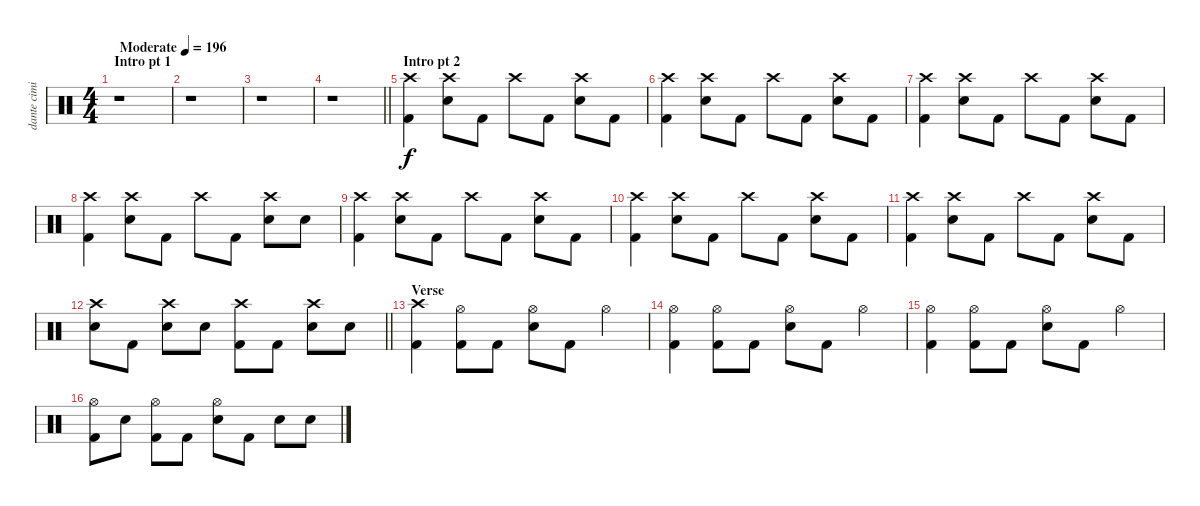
\track ("dante cimino" "dante cimi") {instrument percussion}
\staff {score}
\articulation defaults
\ts (4 4)
\section ("" "Intro pt 1")
\tempo (196 "Moderate")
\clef neutral
\ks c
r.1{dy f} |
r.1 |
r.1 |
\barLineRight lightlight
r.1 |
\section ("" "Intro pt 2")
("Crash high (hit)" "Kick (hit) 2").4 ("Crash high (hit)" "Electric Snare (hit)").8 "Kick (hit) 2".8 "Crash high (hit)".8 "Kick (hit) 2".8 ("Crash high (hit)" "Electric Snare (hit)").8 "Kick (hit) 2".8 |
("Crash high (hit)" "Kick (hit) 2").4 ("Crash high (hit)" "Electric Snare (hit)").8 "Kick (hit) 2".8 "Crash high (hit)".8 "Kick (hit) 2".8 ("Crash high (hit)" "Electric Snare (hit)").8 "Kick (hit) 2".8 |
("Crash high (hit)" "Kick (hit) 2").4 ("Crash high (hit)" "Electric Snare (hit)").8 "Kick (hit) 2".8 "Crash high (hit)".8 "Kick (hit) 2".8 ("Crash high (hit)" "Electric Snare (hit)").8 "Kick (hit) 2".8 |
("Crash high (hit)" "Kick (hit) 2").4 ("Crash high (hit)" "Electric Snare (hit)").8 "Kick (hit) 2".8 "Crash high (hit)".8 "Kick (hit) 2".8 ("Crash high (hit)" "Electric Snare (hit)").8 "Electric Snare (hit)".8 |
("Crash high (hit)" "Kick (hit) 2").4 ("Crash high (hit)" "Electric Snare (hit)").8 "Kick (hit) 2".8 "Crash high (hit)".8 "Kick (hit) 2".8 ("Crash high (hit)" "Electric Snare (hit)").8 "Kick (hit) 2".8 |
("Crash high (hit)" "Kick (hit) 2").4 ("Crash high (hit)" "Electric Snare (hit)").8 "Kick (hit) 2".8 "Crash high (hit)".8 "Kick (hit) 2".8 ("Crash high (hit)" "Electric Snare (hit)").8 "Kick (hit) 2".8 |
("Crash high (hit)" "Kick (hit) 2").4 ("Crash high (hit)" "Electric Snare (hit)").8 "Kick (hit) 2".8 "Crash high (hit)".8 "Kick (hit) 2".8 ("Crash high (hit)" "Electric Snare (hit)").8 "Kick (hit) 2".8 |
\barLineRight lightlight
("Crash high (hit)" "Electric Snare (hit)").8 "Kick (hit) 2".8 ("Crash high (hit)" "Electric Snare (hit)").8 "Electric Snare (hit)".8 ("Crash high (hit)" "Kick (hit) 2").8 "Kick (hit) 2".8 ("Crash high (hit)" "Electric Snare (hit)").8 "Electric Snare (hit)".8 |
\section ("" "Verse")
("Crash high (hit)" "Kick (hit) 2").4 ("Hi-Hat (open)" "Kick (hit) 2").8 "Kick (hit) 2".8 ("Hi-Hat (open)" "Electric Snare (hit)").8 "Kick (hit) 2".8 "Hi-Hat (open)".4 |
("Hi-Hat (open)" "Kick (hit) 2").4 ("Hi-Hat (open)" "Kick (hit) 2").8 "Kick (hit) 2".8 ("Hi-Hat (open)" "Electric Snare (hit)").8 "Kick (hit) 2".8 "Hi-Hat (open)".4 |
("Hi-Hat (open)" "Kick (hit) 2").4 ("Hi-Hat (open)" "Kick (hit) 2").8 "Kick (hit) 2".8 ("Hi-Hat (open)" "Electric Snare (hit)").8 "Kick (hit) 2".8 "Hi-Hat (open)".4 |
("Hi-Hat (open)" "Kick (hit) 2").8 "Electric Snare (hit)".8 ("Hi-Hat (open)" "Kick (hit) 2").8 "Kick (hit) 2".8 ("Hi-Hat (open)" "Electric Snare (hit)").8 "Kick (hit) 2".8 "Electric Snare (hit)".8 "Electric Snare (hit)".8
